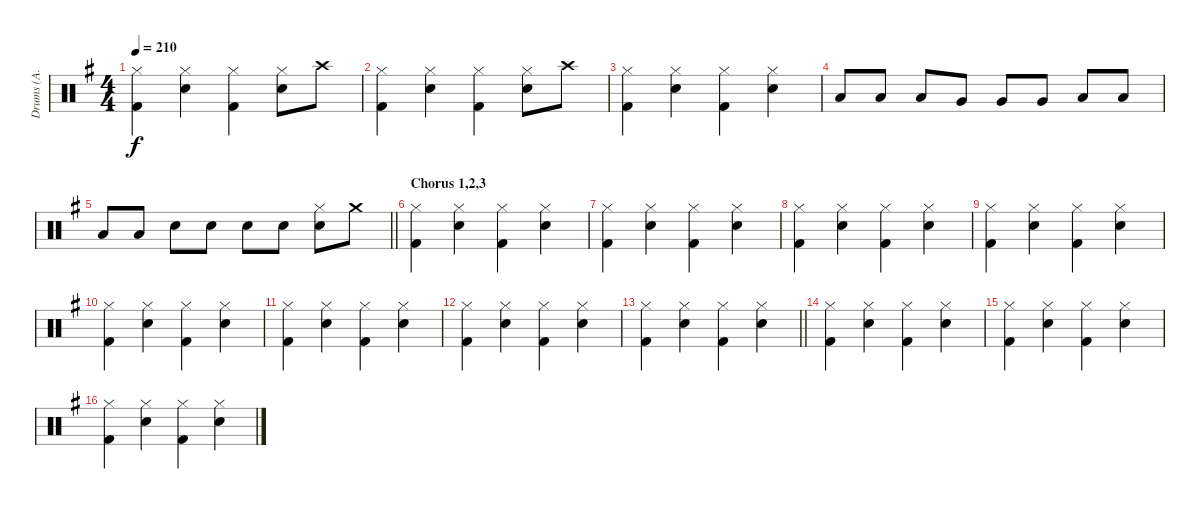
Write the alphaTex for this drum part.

\track ("Drums (А. Манякин)" "Drums (А. ") {instrument percussion}
\staff {score}
\articulation defaults
\ts (4 4)
\tempo 210
\clef neutral
\ks g
("Hi-Hat (closed)" "Kick (hit) 2").4{dy f} ("Hi-Hat (closed)" "Snare (hit) 2").4 ("Hi-Hat (closed)" "Kick (hit) 2").4 ("Hi-Hat (closed)" "Snare (hit) 2").8 "Crash high (hit)".8 |
("Hi-Hat (closed)" "Kick (hit) 2").4 ("Hi-Hat (closed)" "Snare (hit) 2").4 ("Hi-Hat (closed)" "Kick (hit) 2").4 ("Hi-Hat (closed)" "Snare (hit) 2").8 "Crash high (hit)".8 |
("Hi-Hat (closed)" "Kick (hit) 2").4 ("Hi-Hat (closed)" "Snare (hit) 2").4 ("Hi-Hat (closed)" "Kick (hit) 2").4 ("Hi-Hat (closed)" "Snare (hit) 2").4 |
"Low Floor Tom (hit)".8 "Low Floor Tom (hit)".8 "Low Floor Tom (hit)".8 "Very Low Tom (hit)".8 "Very Low Tom (hit)".8 "Very Low Tom (hit)".8 "Low Tom (hit)".8 "Low Tom (hit)".8 |
\barLineRight lightlight "Low Tom (hit)".8 "Low Tom (hit)".8 "Snare (hit) 2".8 "Snare (hit) 2".8 "Snare (hit) 2".8 "Snare (hit) 2".8
("Hi-Hat (closed)" "Snare (hit) 2").8 "Crash medium (hit)".8 |
\section ("" "Chorus 1,2,3")
("Hi-Hat (closed)" "Kick (hit) 2").4 ("Hi-Hat (closed)" "Snare (hit) 2").4 ("Hi-Hat (closed)" "Kick (hit) 2").4 ("Hi-Hat (closed)" "Snare (hit) 2").4 |
("Hi-Hat (closed)" "Kick (hit) 2").4 ("Hi-Hat (closed)" "Snare (hit) 2").4 ("Hi-Hat (closed)" "Kick (hit) 2").4 ("Hi-Hat (closed)" "Snare (hit) 2").4 |
("Hi-Hat (closed)" "Kick (hit) 2").4 ("Hi-Hat (closed)" "Snare (hit) 2").4 ("Hi-Hat (closed)" "Kick (hit) 2").4 ("Hi-Hat (closed)" "Snare (hit) 2").4 |
("Hi-Hat (closed)" "Kick (hit) 2").4 ("Hi-Hat (closed)" "Snare (hit) 2").4 ("Hi-Hat (closed)" "Kick (hit) 2").4 ("Hi-Hat (closed)" "Snare (hit) 2").4 |
("Hi-Hat (closed)" "Kick (hit) 2").4 ("Hi-Hat (closed)" "Snare (hit) 2").4 ("Hi-Hat (closed)" "Kick (hit) 2").4 ("Hi-Hat (closed)" "Snare (hit) 2").4 |
("Hi-Hat (closed)" "Kick (hit) 2").4 ("Hi-Hat (closed)" "Snare (hit) 2").4 ("Hi-Hat (closed)" "Kick (hit) 2").4 ("Hi-Hat (closed)" "Snare (hit) 2").4 |
("Hi-Hat (closed)" "Kick (hit) 2").4 ("Hi-Hat (closed)" "Snare (hit) 2").4 ("Hi-Hat (closed)" "Kick (hit) 2").4 ("Hi-Hat (closed)" "Snare (hit) 2").4 |
\barLineRight lightlight
("Hi-Hat (closed)" "Kick (hit) 2").4 ("Hi-Hat (closed)" "Snare (hit) 2").4 ("Hi-Hat (closed)" "Kick (hit) 2").4 ("Hi-Hat (closed)" "Snare (hit) 2").4 |
("Hi-Hat (closed)" "Kick (hit) 2").4 ("Hi-Hat (closed)" "Snare (hit) 2").4 ("Hi-Hat (closed)" "Kick (hit) 2").4 ("Hi-Hat (closed)" "Snare (hit) 2").4 |
("Hi-Hat (closed)" "Kick (hit) 2").4 ("Hi-Hat (closed)" "Snare (hit) 2").4 ("Hi-Hat (closed)" "Kick (hit) 2").4 ("Hi-Hat (closed)" "Snare (hit) 2").4 |
("Hi-Hat (closed)" "Kick (hit) 2").4 ("Hi-Hat (closed)" "Snare (hit) 2").4 ("Hi-Hat (closed)" "Kick (hit) 2").4 ("Hi-Hat (closed)" "Snare (hit) 2").4
